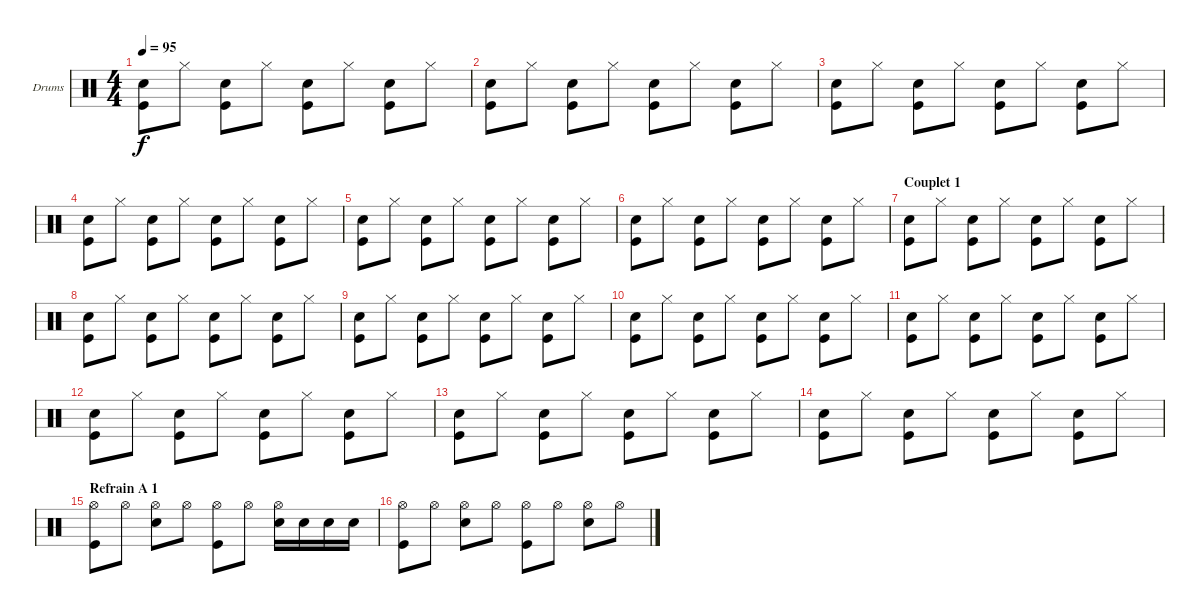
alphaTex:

\bracketExtendMode groupsimilarinstruments
\firstSystemTrackNameOrientation horizontal
\otherSystemsTrackNameOrientation horizontal
\chordDiagramsInScore
\track ("Drumkit" "Drums") {instrument percussion}
\staff {score}
\articulation defaults
\ts (4 4)
\tempo 95
\clef neutral
\ks c
("Snare (hit) 2" "Kick (hit)").8{dy f} "Hi-Hat (closed)".8 ("Snare (hit) 2" "Kick (hit)").8 "Hi-Hat (closed)".8 ("Snare (hit) 2" "Kick (hit)").8 "Hi-Hat (closed)".8 ("Snare (hit) 2" "Kick (hit)").8 "Hi-Hat (closed)".8 |
("Snare (hit) 2" "Kick (hit)").8 "Hi-Hat (closed)".8 ("Snare (hit) 2" "Kick (hit)").8 "Hi-Hat (closed)".8 ("Snare (hit) 2" "Kick (hit)").8 "Hi-Hat (closed)".8 ("Snare (hit) 2" "Kick (hit)").8 "Hi-Hat (closed)".8 |
("Snare (hit) 2" "Kick (hit)").8 "Hi-Hat (closed)".8 ("Snare (hit) 2" "Kick (hit)").8 "Hi-Hat (closed)".8 ("Snare (hit) 2" "Kick (hit)").8 "Hi-Hat (closed)".8 ("Snare (hit) 2" "Kick (hit)").8 "Hi-Hat (closed)".8 |
("Snare (hit) 2" "Kick (hit)").8 "Hi-Hat (closed)".8 ("Snare (hit) 2" "Kick (hit)").8 "Hi-Hat (closed)".8 ("Snare (hit) 2" "Kick (hit)").8 "Hi-Hat (closed)".8 ("Snare (hit) 2" "Kick (hit)").8 "Hi-Hat (closed)".8 |
("Snare (hit) 2" "Kick (hit)").8 "Hi-Hat (closed)".8 ("Snare (hit) 2" "Kick (hit)").8 "Hi-Hat (closed)".8 ("Snare (hit) 2" "Kick (hit)").8 "Hi-Hat (closed)".8 ("Snare (hit) 2" "Kick (hit)").8 "Hi-Hat (closed)".8 |
("Snare (hit) 2" "Kick (hit)").8 "Hi-Hat (closed)".8 ("Snare (hit) 2" "Kick (hit)").8 "Hi-Hat (closed)".8 ("Snare (hit) 2" "Kick (hit)").8 "Hi-Hat (closed)".8 ("Snare (hit) 2" "Kick (hit)").8 "Hi-Hat (closed)".8 |
\section ("" "Couplet 1")
("Snare (hit) 2" "Kick (hit)").8 "Hi-Hat (closed)".8 ("Snare (hit) 2" "Kick (hit)").8 "Hi-Hat (closed)".8 ("Snare (hit) 2" "Kick (hit)").8 "Hi-Hat (closed)".8 ("Snare (hit) 2" "Kick (hit)").8 "Hi-Hat (closed)".8 |
("Snare (hit) 2" "Kick (hit)").8 "Hi-Hat (closed)".8 ("Snare (hit) 2" "Kick (hit)").8 "Hi-Hat (closed)".8 ("Snare (hit) 2" "Kick (hit)").8 "Hi-Hat (closed)".8 ("Snare (hit) 2" "Kick (hit)").8 "Hi-Hat (closed)".8 |
("Snare (hit) 2" "Kick (hit)").8 "Hi-Hat (closed)".8 ("Snare (hit) 2" "Kick (hit)").8 "Hi-Hat (closed)".8 ("Snare (hit) 2" "Kick (hit)").8 "Hi-Hat (closed)".8 ("Snare (hit) 2" "Kick (hit)").8 "Hi-Hat (closed)".8 |
("Snare (hit) 2" "Kick (hit)").8 "Hi-Hat (closed)".8 ("Snare (hit) 2" "Kick (hit)").8 "Hi-Hat (closed)".8 ("Snare (hit) 2" "Kick (hit)").8 "Hi-Hat (closed)".8 ("Snare (hit) 2" "Kick (hit)").8 "Hi-Hat (closed)".8 |
("Snare (hit) 2" "Kick (hit)").8 "Hi-Hat (closed)".8 ("Snare (hit) 2" "Kick (hit)").8 "Hi-Hat (closed)".8 ("Snare (hit) 2" "Kick (hit)").8 "Hi-Hat (closed)".8 ("Snare (hit) 2" "Kick (hit)").8 "Hi-Hat (closed)".8 |
("Snare (hit) 2" "Kick (hit)").8 "Hi-Hat (closed)".8 ("Snare (hit) 2" "Kick (hit)").8 "Hi-Hat (closed)".8 ("Snare (hit) 2" "Kick (hit)").8 "Hi-Hat (closed)".8 ("Snare (hit) 2" "Kick (hit)").8 "Hi-Hat (closed)".8 |
("Snare (hit) 2" "Kick (hit)").8 "Hi-Hat (closed)".8 ("Snare (hit) 2" "Kick (hit)").8 "Hi-Hat (closed)".8 ("Snare (hit) 2" "Kick (hit)").8 "Hi-Hat (closed)".8 ("Snare (hit) 2" "Kick (hit)").8 "Hi-Hat (closed)".8 |
("Snare (hit) 2" "Kick (hit)").8 "Hi-Hat (closed)".8 ("Snare (hit) 2" "Kick (hit)").8 "Hi-Hat (closed)".8 ("Snare (hit) 2" "Kick (hit)").8 "Hi-Hat (closed)".8 ("Snare (hit) 2" "Kick (hit)").8 "Hi-Hat (closed)".8 |
\section ("" "Refrain A 1")
("Hi-Hat (open)" "Kick (hit)").8 "Hi-Hat (open)".8 ("Hi-Hat (open)" "Snare (hit) 2").8 "Hi-Hat (open)".8 ("Hi-Hat (open)" "Kick (hit)").8 "Hi-Hat (open)".8 ("Hi-Hat (open)" "Snare (hit) 2").16 "Snare (hit) 2".16 "Snare (hit) 2".16 "Snare (hit) 2".16 |
("Hi-Hat (open)" "Kick (hit)").8 "Hi-Hat (open)".8 ("Hi-Hat (open)" "Snare (hit) 2").8 "Hi-Hat (open)".8 ("Hi-Hat (open)" "Kick (hit)").8 "Hi-Hat (open)".8 ("Hi-Hat (open)" "Snare (hit) 2").8 "Hi-Hat (open)".8
